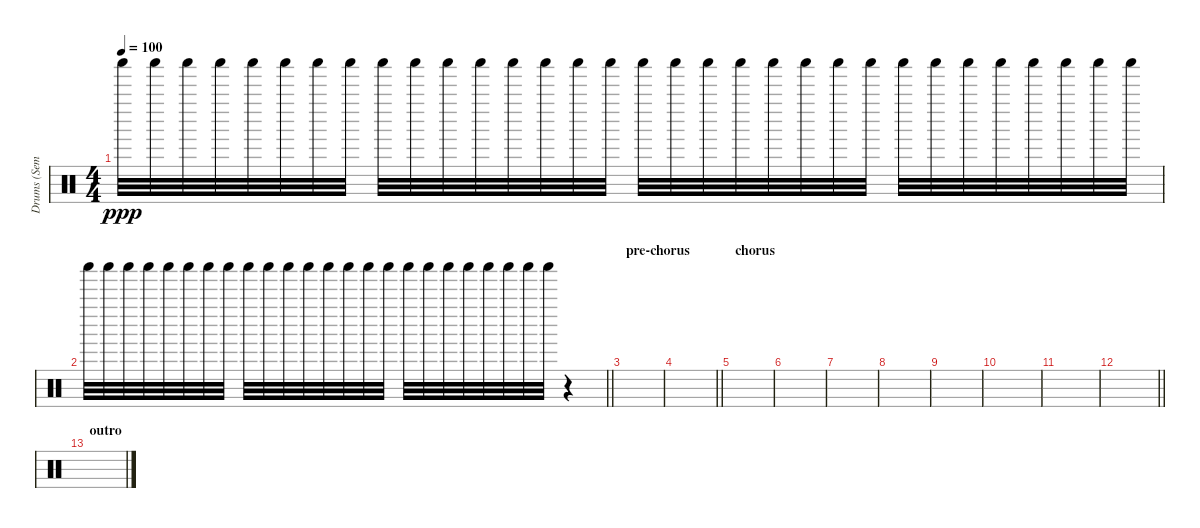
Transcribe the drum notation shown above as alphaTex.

\track ("Drums (Semple)" "Drums (Sem") {instrument percussion}
\staff {score}
\articulation defaults
\ts (4 4)
\tempo 100
\clef neutral
\ks c "Shaker (hit)".32{dy ppp} "Shaker (hit)".32 "Shaker (hit)".32 "Shaker (hit)".32 "Shaker (hit)".32 "Shaker (hit)".32 "Shaker (hit)".32 "Shaker (hit)".32 "Shaker (hit)".32 "Shaker (hit)".32 "Shaker (hit)".32 "Shaker (hit)".32 "Shaker (hit)".32 "Shaker (hit)".32 "Shaker (hit)".32 "Shaker (hit)".32 "Shaker (hit)".32 "Shaker (hit)".32 "Shaker (hit)".32 "Shaker (hit)".32 "Shaker (hit)".32 "Shaker (hit)".32 "Shaker (hit)".32 "Shaker (hit)".32 "Shaker (hit)".32 "Shaker (hit)".32 "Shaker (hit)".32 "Shaker (hit)".32 "Shaker (hit)".32 "Shaker (hit)".32 "Shaker (hit)".32 "Shaker (hit)".32
|
\barLineRight lightlight "Shaker (hit)".32 "Shaker (hit)".32 "Shaker (hit)".32 "Shaker (hit)".32 "Shaker (hit)".32 "Shaker (hit)".32 "Shaker (hit)".32 "Shaker (hit)".32 "Shaker (hit)".32 "Shaker (hit)".32 "Shaker (hit)".32 "Shaker (hit)".32 "Shaker (hit)".32 "Shaker (hit)".32 "Shaker (hit)".32 "Shaker (hit)".32 "Shaker (hit)".32 "Shaker (hit)".32 "Shaker (hit)".32 "Shaker (hit)".32 "Shaker (hit)".32 "Shaker (hit)".32 "Shaker (hit)".32 "Shaker (hit)".32
r.4 |
\section ("" "pre-chorus")
|
\barLineRight lightlight
|
\section ("" "chorus")
|
|
|
|
|
|
|
\barLineRight lightlight
|
\section ("" "outro")
